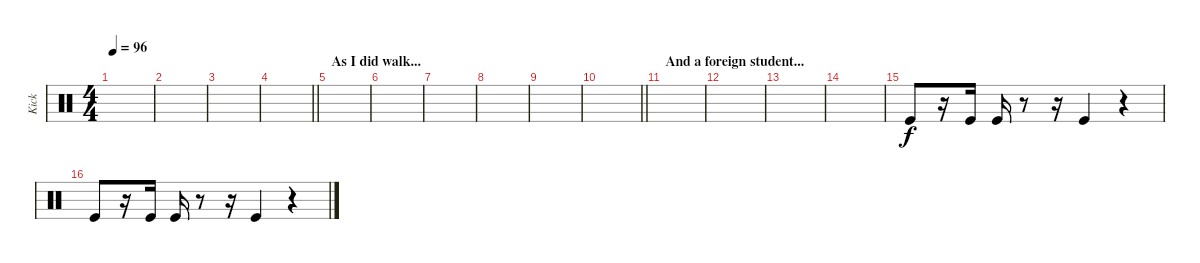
\track ("Kick" "Kick") {instrument percussion}
\staff {score}
\articulation defaults
\ts (4 4)
\tempo 96
\clef neutral
\ks c
|
|
|
\barLineRight lightlight
|
\section ("" "As I did walk...")
|
|
|
|
|
\barLineRight lightlight
|
\section ("" "And a foreign student...")
|
|
|
|
"Kick (hit)".8 r.16 "Kick (hit)".16 "Kick (hit)".16 r.8 r.16 "Kick (hit)".4 r.4 |
"Kick (hit)".8 r.16 "Kick (hit)".16 "Kick (hit)".16 r.8 r.16 "Kick (hit)".4 r.4
